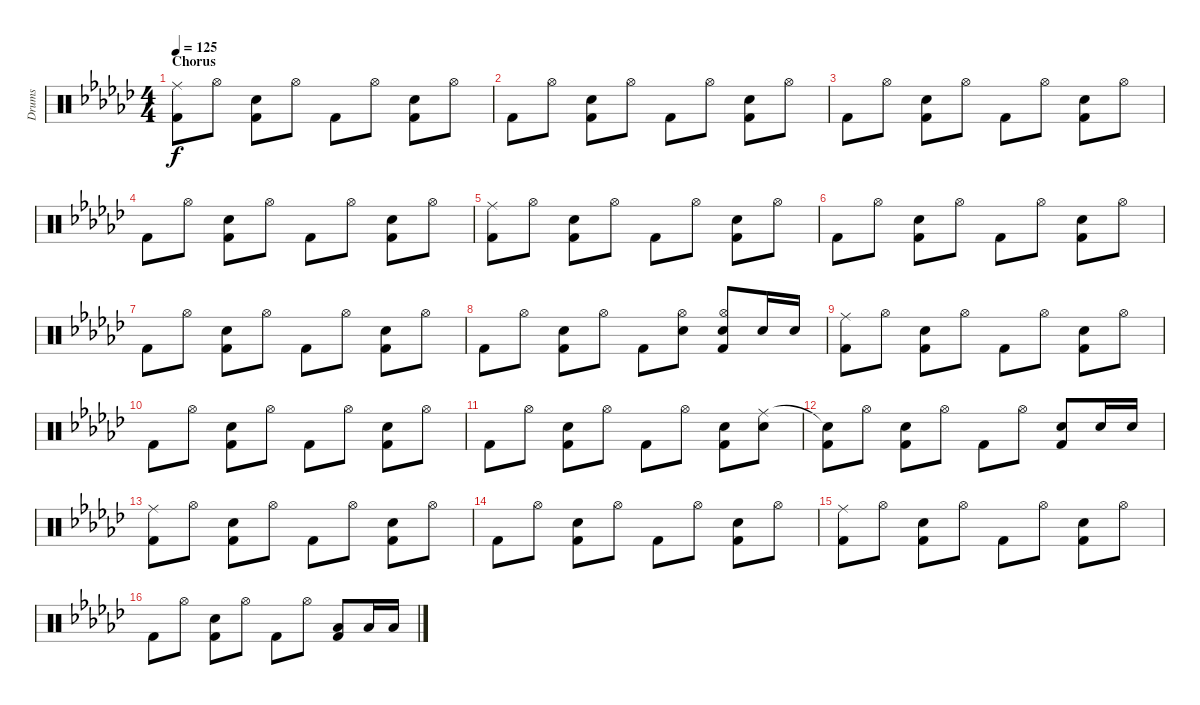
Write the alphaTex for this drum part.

\track ("Drums" "Drums") {instrument percussion}
\staff {score}
\articulation defaults
\ts (4 4)
\section ("" "Chorus")
\tempo 125
\clef neutral
\ks gb
("Ride (middle)" "Kick (hit) 2").8{dy f} "Hi-Hat (open)".8 ("Snare (hit) 2" "Kick (hit) 2").8 "Hi-Hat (open)".8 "Kick (hit) 2".8 "Hi-Hat (open)".8 ("Snare (hit) 2" "Kick (hit) 2").8 "Hi-Hat (open)".8 |
"Kick (hit) 2".8 "Hi-Hat (open)".8 ("Snare (hit) 2" "Kick (hit) 2").8 "Hi-Hat (open)".8 "Kick (hit) 2".8 "Hi-Hat (open)".8 ("Snare (hit) 2" "Kick (hit) 2").8 "Hi-Hat (open)".8 |
"Kick (hit) 2".8 "Hi-Hat (open)".8 ("Snare (hit) 2" "Kick (hit) 2").8 "Hi-Hat (open)".8 "Kick (hit) 2".8 "Hi-Hat (open)".8 ("Snare (hit) 2" "Kick (hit) 2").8 "Hi-Hat (open)".8 |
"Kick (hit) 2".8 "Hi-Hat (open)".8 ("Snare (hit) 2" "Kick (hit) 2").8 "Hi-Hat (open)".8 "Kick (hit) 2".8 "Hi-Hat (open)".8 ("Snare (hit) 2" "Kick (hit) 2").8 "Hi-Hat (open)".8 |
("Ride (middle)" "Kick (hit) 2").8 "Hi-Hat (open)".8 ("Snare (hit) 2" "Kick (hit) 2").8 "Hi-Hat (open)".8 "Kick (hit) 2".8 "Hi-Hat (open)".8 ("Snare (hit) 2" "Kick (hit) 2").8 "Hi-Hat (open)".8 |
"Kick (hit) 2".8 "Hi-Hat (open)".8 ("Snare (hit) 2" "Kick (hit) 2").8 "Hi-Hat (open)".8 "Kick (hit) 2".8 "Hi-Hat (open)".8 ("Snare (hit) 2" "Kick (hit) 2").8 "Hi-Hat (open)".8 |
"Kick (hit) 2".8 "Hi-Hat (open)".8 ("Snare (hit) 2" "Kick (hit) 2").8 "Hi-Hat (open)".8 "Kick (hit) 2".8 "Hi-Hat (open)".8 ("Snare (hit) 2" "Kick (hit) 2").8 "Hi-Hat (open)".8 |
"Kick (hit) 2".8 "Hi-Hat (open)".8 ("Snare (hit) 2" "Kick (hit) 2").8 "Hi-Hat (open)".8 "Kick (hit) 2".8 ("Hi-Hat (open)" "Snare (hit) 2").8 ("Hi-Hat (open)" "Snare (hit) 2" "Kick (hit) 2").8 "Snare (hit) 2".16 "Snare (hit) 2".16 |
("Ride (middle)" "Kick (hit) 2").8 "Hi-Hat (open)".8 ("Snare (hit) 2" "Kick (hit) 2").8 "Hi-Hat (open)".8 "Kick (hit) 2".8 "Hi-Hat (open)".8 ("Snare (hit) 2" "Kick (hit) 2").8 "Hi-Hat (open)".8 |
"Kick (hit) 2".8 "Hi-Hat (open)".8 ("Snare (hit) 2" "Kick (hit) 2").8 "Hi-Hat (open)".8 "Kick (hit) 2".8 "Hi-Hat (open)".8 ("Snare (hit) 2" "Kick (hit) 2").8 "Hi-Hat (open)".8 |
"Kick (hit) 2".8 "Hi-Hat (open)".8 ("Snare (hit) 2" "Kick (hit) 2").8 "Hi-Hat (open)".8 "Kick (hit) 2".8 "Hi-Hat (open)".8 ("Snare (hit) 2" "Kick (hit) 2").8 ("Ride (middle)" "Snare (hit) 2").8 |
("Snare (hit)"{t} "Kick (hit) 2").8 "Hi-Hat (open)".8 ("Snare (hit) 2" "Kick (hit) 2").8 "Hi-Hat (open)".8 "Kick (hit) 2".8 "Hi-Hat (open)".8 ("Snare (hit) 2" "Kick (hit) 2").8 "Snare (hit) 2".16 "Snare (hit) 2".16 |
("Ride (middle)" "Kick (hit) 2").8 "Hi-Hat (open)".8 ("Snare (hit) 2" "Kick (hit) 2").8 "Hi-Hat (open)".8 "Kick (hit) 2".8 "Hi-Hat (open)".8 ("Snare (hit) 2" "Kick (hit) 2").8 "Hi-Hat (open)".8 |
"Kick (hit) 2".8 "Hi-Hat (open)".8 ("Snare (hit) 2" "Kick (hit) 2").8 "Hi-Hat (open)".8 "Kick (hit) 2".8 "Hi-Hat (open)".8 ("Snare (hit) 2" "Kick (hit) 2").8 "Hi-Hat (open)".8 |
("Ride (middle)" "Kick (hit) 2").8 "Hi-Hat (open)".8 ("Snare (hit) 2" "Kick (hit) 2").8 "Hi-Hat (open)".8 "Kick (hit) 2".8 "Hi-Hat (open)".8 ("Snare (hit) 2" "Kick (hit) 2").8 "Hi-Hat (open)".8 |
"Kick (hit) 2".8 "Hi-Hat (open)".8 ("Snare (hit) 2" "Kick (hit) 2").8 "Hi-Hat (open)".8 "Kick (hit) 2".8 "Hi-Hat (open)".8 ("Low Tom (hit)" "Kick (hit) 2").8 "Low Tom (hit)".16 "Low Tom (hit)".16
